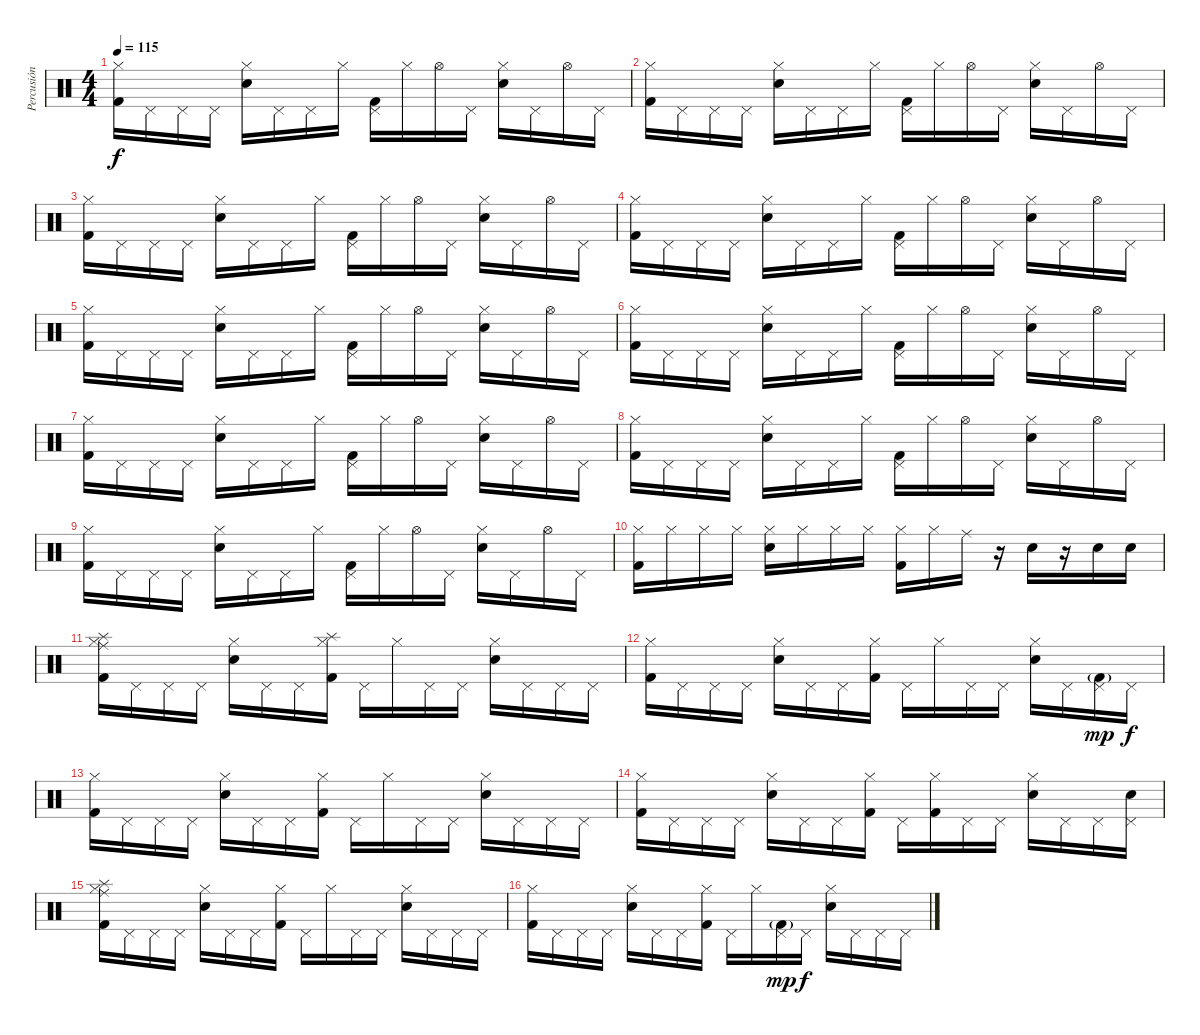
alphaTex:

\track ("Percusión" "Percusión") {instrument percussion}
\staff {score}
\articulation defaults
\ts (4 4)
\tempo 115
\clef neutral
\ks c
("Hi-Hat (closed)" "Kick (hit) 2").16{dy f} "Pedal Hi-Hat (hit)".16 "Pedal Hi-Hat (hit)".16 "Pedal Hi-Hat (hit)".16 ("Hi-Hat (closed)" "Snare (hit) 2").16 "Pedal Hi-Hat (hit)".16 "Pedal Hi-Hat (hit)".16 "Hi-Hat (closed)".16 ("Pedal Hi-Hat (hit)" "Kick (hit) 2").16 "Hi-Hat (closed)".16 "Hi-Hat (open)".16 "Pedal Hi-Hat (hit)".16 ("Hi-Hat (closed)" "Snare (hit) 2").16 "Pedal Hi-Hat (hit)".16 "Hi-Hat (open)".16 "Pedal Hi-Hat (hit)".16 |
("Hi-Hat (closed)" "Kick (hit) 2").16 "Pedal Hi-Hat (hit)".16 "Pedal Hi-Hat (hit)".16 "Pedal Hi-Hat (hit)".16 ("Hi-Hat (closed)" "Snare (hit) 2").16 "Pedal Hi-Hat (hit)".16 "Pedal Hi-Hat (hit)".16 "Hi-Hat (closed)".16 ("Pedal Hi-Hat (hit)" "Kick (hit) 2").16 "Hi-Hat (closed)".16 "Hi-Hat (open)".16 "Pedal Hi-Hat (hit)".16 ("Hi-Hat (closed)" "Snare (hit) 2").16 "Pedal Hi-Hat (hit)".16 "Hi-Hat (open)".16 "Pedal Hi-Hat (hit)".16 |
("Hi-Hat (closed)" "Kick (hit) 2").16 "Pedal Hi-Hat (hit)".16 "Pedal Hi-Hat (hit)".16 "Pedal Hi-Hat (hit)".16 ("Hi-Hat (closed)" "Snare (hit) 2").16 "Pedal Hi-Hat (hit)".16 "Pedal Hi-Hat (hit)".16 "Hi-Hat (closed)".16 ("Pedal Hi-Hat (hit)" "Kick (hit) 2").16 "Hi-Hat (closed)".16 "Hi-Hat (open)".16 "Pedal Hi-Hat (hit)".16 ("Hi-Hat (closed)" "Snare (hit) 2").16 "Pedal Hi-Hat (hit)".16 "Hi-Hat (open)".16 "Pedal Hi-Hat (hit)".16 |
("Hi-Hat (closed)" "Kick (hit) 2").16 "Pedal Hi-Hat (hit)".16 "Pedal Hi-Hat (hit)".16 "Pedal Hi-Hat (hit)".16 ("Hi-Hat (closed)" "Snare (hit) 2").16 "Pedal Hi-Hat (hit)".16 "Pedal Hi-Hat (hit)".16 "Hi-Hat (closed)".16 ("Pedal Hi-Hat (hit)" "Kick (hit) 2").16 "Hi-Hat (closed)".16 "Hi-Hat (open)".16 "Pedal Hi-Hat (hit)".16 ("Hi-Hat (closed)" "Snare (hit) 2").16 "Pedal Hi-Hat (hit)".16 "Hi-Hat (open)".16 "Pedal Hi-Hat (hit)".16 |
("Hi-Hat (closed)" "Kick (hit) 2").16 "Pedal Hi-Hat (hit)".16 "Pedal Hi-Hat (hit)".16 "Pedal Hi-Hat (hit)".16 ("Hi-Hat (closed)" "Snare (hit) 2").16 "Pedal Hi-Hat (hit)".16 "Pedal Hi-Hat (hit)".16 "Hi-Hat (closed)".16 ("Pedal Hi-Hat (hit)" "Kick (hit) 2").16 "Hi-Hat (closed)".16 "Hi-Hat (open)".16 "Pedal Hi-Hat (hit)".16 ("Hi-Hat (closed)" "Snare (hit) 2").16 "Pedal Hi-Hat (hit)".16 "Hi-Hat (open)".16 "Pedal Hi-Hat (hit)".16 |
("Hi-Hat (closed)" "Kick (hit) 2").16 "Pedal Hi-Hat (hit)".16 "Pedal Hi-Hat (hit)".16 "Pedal Hi-Hat (hit)".16 ("Hi-Hat (closed)" "Snare (hit) 2").16 "Pedal Hi-Hat (hit)".16 "Pedal Hi-Hat (hit)".16 "Hi-Hat (closed)".16 ("Pedal Hi-Hat (hit)" "Kick (hit) 2").16 "Hi-Hat (closed)".16 "Hi-Hat (open)".16 "Pedal Hi-Hat (hit)".16 ("Hi-Hat (closed)" "Snare (hit) 2").16 "Pedal Hi-Hat (hit)".16 "Hi-Hat (open)".16 "Pedal Hi-Hat (hit)".16 |
("Hi-Hat (closed)" "Kick (hit) 2").16 "Pedal Hi-Hat (hit)".16 "Pedal Hi-Hat (hit)".16 "Pedal Hi-Hat (hit)".16 ("Hi-Hat (closed)" "Snare (hit) 2").16 "Pedal Hi-Hat (hit)".16 "Pedal Hi-Hat (hit)".16 "Hi-Hat (closed)".16 ("Pedal Hi-Hat (hit)" "Kick (hit) 2").16 "Hi-Hat (closed)".16 "Hi-Hat (open)".16 "Pedal Hi-Hat (hit)".16 ("Hi-Hat (closed)" "Snare (hit) 2").16 "Pedal Hi-Hat (hit)".16 "Hi-Hat (open)".16 "Pedal Hi-Hat (hit)".16 |
("Hi-Hat (closed)" "Kick (hit) 2").16 "Pedal Hi-Hat (hit)".16 "Pedal Hi-Hat (hit)".16 "Pedal Hi-Hat (hit)".16 ("Hi-Hat (closed)" "Snare (hit) 2").16 "Pedal Hi-Hat (hit)".16 "Pedal Hi-Hat (hit)".16 "Hi-Hat (closed)".16 ("Pedal Hi-Hat (hit)" "Kick (hit) 2").16 "Hi-Hat (closed)".16 "Hi-Hat (open)".16 "Pedal Hi-Hat (hit)".16 ("Hi-Hat (closed)" "Snare (hit) 2").16 "Pedal Hi-Hat (hit)".16 "Hi-Hat (open)".16 "Pedal Hi-Hat (hit)".16 |
("Hi-Hat (closed)" "Kick (hit) 2").16 "Pedal Hi-Hat (hit)".16 "Pedal Hi-Hat (hit)".16 "Pedal Hi-Hat (hit)".16 ("Hi-Hat (closed)" "Snare (hit) 2").16 "Pedal Hi-Hat (hit)".16 "Pedal Hi-Hat (hit)".16 "Hi-Hat (closed)".16 ("Pedal Hi-Hat (hit)" "Kick (hit) 2").16 "Hi-Hat (closed)".16 "Hi-Hat (open)".16 "Pedal Hi-Hat (hit)".16 ("Hi-Hat (closed)" "Snare (hit) 2").16 "Pedal Hi-Hat (hit)".16 "Hi-Hat (open)".16 "Pedal Hi-Hat (hit)".16 |
("Hi-Hat (closed)" "Kick (hit) 2").16 "Hi-Hat (closed)".16 "Hi-Hat (closed)".16 "Hi-Hat (closed)".16 ("Hi-Hat (closed)" "Snare (hit) 2").16 "Hi-Hat (closed)".16 "Hi-Hat (closed)".16 "Hi-Hat (closed)".16 ("Hi-Hat (closed)" "Kick (hit) 2").16 "Hi-Hat (closed)".16 "Ride (middle)".16 r.16 "Snare (hit) 2".16 r.16 "Snare (hit) 2".16 "Snare (hit) 2".16 |
("Hi-Hat (closed)" "Kick (hit) 2" "Ride (middle)" "Splash (hit)").16 "Pedal Hi-Hat (hit)".16 "Pedal Hi-Hat (hit)".16 "Pedal Hi-Hat (hit)".16 ("Hi-Hat (closed)" "Snare (hit) 2").16 "Pedal Hi-Hat (hit)".16 "Pedal Hi-Hat (hit)".16 ("Hi-Hat (closed)" "Kick (hit) 2" "Splash (hit)").16 "Pedal Hi-Hat (hit)".16 "Hi-Hat (closed)".16 "Pedal Hi-Hat (hit)".16 "Pedal Hi-Hat (hit)".16 ("Hi-Hat (closed)" "Snare (hit) 2").16 "Pedal Hi-Hat (hit)".16 "Pedal Hi-Hat (hit)".16 "Pedal Hi-Hat (hit)".16 |
("Hi-Hat (closed)" "Kick (hit) 2").16 "Pedal Hi-Hat (hit)".16 "Pedal Hi-Hat (hit)".16 "Pedal Hi-Hat (hit)".16 ("Hi-Hat (closed)" "Snare (hit) 2").16 "Pedal Hi-Hat (hit)".16 "Pedal Hi-Hat (hit)".16 ("Hi-Hat (closed)" "Kick (hit) 2").16 "Pedal Hi-Hat (hit)".16 "Hi-Hat (closed)".16 "Pedal Hi-Hat (hit)".16 "Pedal Hi-Hat (hit)".16 ("Hi-Hat (closed)" "Snare (hit) 2").16 "Pedal Hi-Hat (hit)".16 ("Pedal Hi-Hat (hit)" "Kick (hit) 2"{g}).16{dy mp} "Pedal Hi-Hat (hit)".16{dy f} |
("Hi-Hat (closed)" "Kick (hit) 2").16 "Pedal Hi-Hat (hit)".16 "Pedal Hi-Hat (hit)".16 "Pedal Hi-Hat (hit)".16 ("Hi-Hat (closed)" "Snare (hit) 2").16 "Pedal Hi-Hat (hit)".16 "Pedal Hi-Hat (hit)".16 ("Hi-Hat (closed)" "Kick (hit) 2").16 "Pedal Hi-Hat (hit)".16 "Hi-Hat (closed)".16 "Pedal Hi-Hat (hit)".16 "Pedal Hi-Hat (hit)".16 ("Hi-Hat (closed)" "Snare (hit) 2").16 "Pedal Hi-Hat (hit)".16 "Pedal Hi-Hat (hit)".16 "Pedal Hi-Hat (hit)".16 |
("Hi-Hat (closed)" "Kick (hit) 2").16 "Pedal Hi-Hat (hit)".16 "Pedal Hi-Hat (hit)".16 "Pedal Hi-Hat (hit)".16 ("Hi-Hat (closed)" "Snare (hit) 2").16 "Pedal Hi-Hat (hit)".16 "Pedal Hi-Hat (hit)".16 ("Hi-Hat (closed)" "Kick (hit) 2").16 "Pedal Hi-Hat (hit)".16 ("Hi-Hat (closed)" "Kick (hit) 2").16 "Pedal Hi-Hat (hit)".16 "Pedal Hi-Hat (hit)".16 ("Hi-Hat (closed)" "Snare (hit) 2").16 "Pedal Hi-Hat (hit)".16 "Pedal Hi-Hat (hit)".16 ("Pedal Hi-Hat (hit)" "Snare (hit) 2").16 |
("Hi-Hat (closed)" "Kick (hit) 2" "Ride (middle)" "Splash (hit)").16 "Pedal Hi-Hat (hit)".16 "Pedal Hi-Hat (hit)".16 "Pedal Hi-Hat (hit)".16 ("Hi-Hat (closed)" "Snare (hit) 2").16 "Pedal Hi-Hat (hit)".16 "Pedal Hi-Hat (hit)".16 ("Hi-Hat (closed)" "Kick (hit) 2").16 "Pedal Hi-Hat (hit)".16 "Hi-Hat (closed)".16 "Pedal Hi-Hat (hit)".16 "Pedal Hi-Hat (hit)".16 ("Hi-Hat (closed)" "Snare (hit) 2").16 "Pedal Hi-Hat (hit)".16 "Pedal Hi-Hat (hit)".16 "Pedal Hi-Hat (hit)".16 |
("Hi-Hat (closed)" "Kick (hit) 2").16 "Pedal Hi-Hat (hit)".16 "Pedal Hi-Hat (hit)".16 "Pedal Hi-Hat (hit)".16 ("Hi-Hat (closed)" "Snare (hit) 2").16 "Pedal Hi-Hat (hit)".16 "Pedal Hi-Hat (hit)".16 ("Hi-Hat (closed)" "Kick (hit) 2").16 "Pedal Hi-Hat (hit)".16 "Hi-Hat (closed)".16 ("Pedal Hi-Hat (hit)" "Kick (hit) 2"{g}).16{dy mp} "Pedal Hi-Hat (hit)".16{dy f} ("Hi-Hat (closed)" "Snare (hit) 2").16 "Pedal Hi-Hat (hit)".16 "Pedal Hi-Hat (hit)".16 "Pedal Hi-Hat (hit)".16
